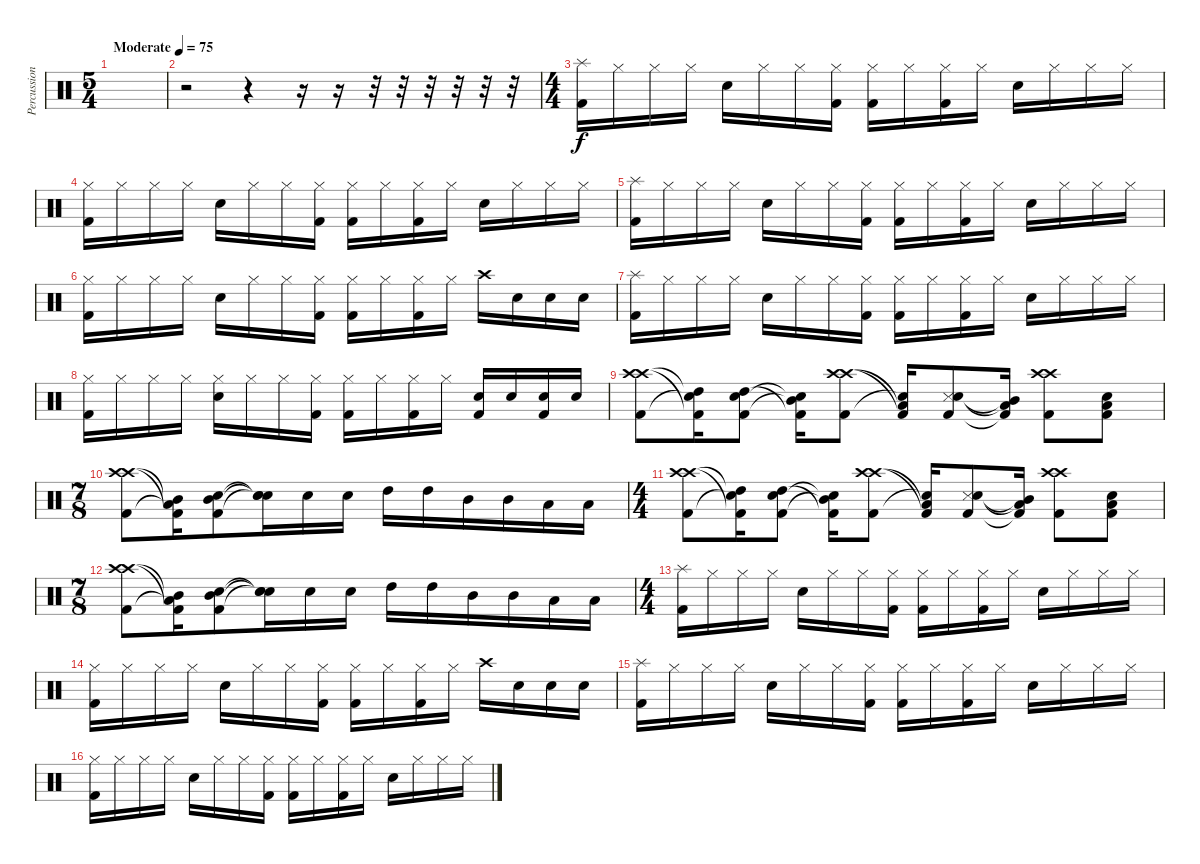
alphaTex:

\track ("Percussion" "Percussion") {instrument percussion}
\staff {score}
\articulation defaults
\ts (5 4)
\tempo (75 "Moderate")
\clef neutral
\ks c
|
r.2 r.4 r.16 r.16 r.32 r.32 r.32 r.32 r.32 r.32 |
\ts (4 4)
("Splash (hit)" "Kick (hit) 2").16 "Hi-Hat (closed)".16 "Hi-Hat (closed)".16 "Hi-Hat (closed)".16 "Snare (hit) 2".16 "Hi-Hat (closed)".16 "Hi-Hat (closed)".16 ("Kick (hit) 2" "Hi-Hat (closed)").16 ("Kick (hit) 2" "Hi-Hat (closed)").16 "Hi-Hat (closed)".16 ("Kick (hit) 2" "Hi-Hat (closed)").16 "Hi-Hat (closed)".16 "Snare (hit) 2".16 "Hi-Hat (closed)".16 "Hi-Hat (closed)".16 "Hi-Hat (closed)".16 |
("Kick (hit) 2" "Hi-Hat (closed)").16 "Hi-Hat (closed)".16 "Hi-Hat (closed)".16 "Hi-Hat (closed)".16 "Snare (hit) 2".16 "Hi-Hat (closed)".16 "Hi-Hat (closed)".16 ("Kick (hit) 2" "Hi-Hat (closed)").16 ("Kick (hit) 2" "Hi-Hat (closed)").16 "Hi-Hat (closed)".16 ("Kick (hit) 2" "Hi-Hat (closed)").16 "Hi-Hat (closed)".16 "Snare (hit) 2".16 "Hi-Hat (closed)".16 "Hi-Hat (closed)".16 "Hi-Hat (closed)".16 |
("Splash (hit)" "Kick (hit) 2").16 "Hi-Hat (closed)".16 "Hi-Hat (closed)".16 "Hi-Hat (closed)".16 "Snare (hit) 2".16 "Hi-Hat (closed)".16 "Hi-Hat (closed)".16 ("Kick (hit) 2" "Hi-Hat (closed)").16 ("Kick (hit) 2" "Hi-Hat (closed)").16 "Hi-Hat (closed)".16 ("Kick (hit) 2" "Hi-Hat (closed)").16 "Hi-Hat (closed)".16 "Snare (hit) 2".16 "Hi-Hat (closed)".16 "Hi-Hat (closed)".16 "Hi-Hat (closed)".16 |
("Kick (hit) 2" "Hi-Hat (closed)").16 "Hi-Hat (closed)".16 "Hi-Hat (closed)".16 "Hi-Hat (closed)".16 "Snare (hit) 2".16 "Hi-Hat (closed)".16 "Hi-Hat (closed)".16 ("Kick (hit) 2" "Hi-Hat (closed)").16 ("Kick (hit) 2" "Hi-Hat (closed)").16 "Hi-Hat (closed)".16 ("Kick (hit) 2" "Hi-Hat (closed)").16 "Hi-Hat (closed)".16 "Crash high (hit)".16 "Snare (hit) 2".16 "Snare (hit) 2".16 "Snare (hit) 2".16 |
("Splash (hit)" "Kick (hit) 2").16 "Hi-Hat (closed)".16 "Hi-Hat (closed)".16 "Hi-Hat (closed)".16 "Snare (hit) 2".16 "Hi-Hat (closed)".16 "Hi-Hat (closed)".16 ("Kick (hit) 2" "Hi-Hat (closed)").16 ("Kick (hit) 2" "Hi-Hat (closed)").16 "Hi-Hat (closed)".16 ("Kick (hit) 2" "Hi-Hat (closed)").16 "Hi-Hat (closed)".16 "Snare (hit) 2".16 "Hi-Hat (closed)".16 "Hi-Hat (closed)".16 "Hi-Hat (closed)".16 |
("Kick (hit) 2" "Hi-Hat (closed)").16 "Hi-Hat (closed)".16 "Hi-Hat (closed)".16 "Hi-Hat (closed)".16 ("Snare (hit) 2" "Hi-Hat (closed)").16 "Hi-Hat (closed)".16 "Hi-Hat (closed)".16 ("Kick (hit) 2" "Hi-Hat (closed)").16 ("Kick (hit) 2" "Hi-Hat (closed)").16 "Hi-Hat (closed)".16 ("Kick (hit) 2" "Hi-Hat (closed)").16 "Hi-Hat (closed)".16 ("Snare (hit) 2" "Kick (hit) 2").16 "Snare (hit) 2".16 ("Snare (hit) 2" "Kick (hit) 2").16 "Snare (hit) 2".16 |
("Crash high (hit)" "Crash high (hit)" "Kick (hit) 2").8 ("Kick (hit) 2"{t} "High Tom (hit)"{t} "Snare (hit) 2"{t}).16 ("High Tom (hit)" "Kick (hit) 2" "Snare (hit) 2").8 ("Kick (hit) 2"{t} "Mid Tom (hit)"{t} "Snare (hit) 2"{t}).16 ("Crash high (hit)" "Crash high (hit)" "Kick (hit) 2").8 ("Kick (hit) 2"{t} "Low Floor Tom (hit)"{t} "Snare (hit) 2"{t}).16 ("Kick (hit) 2" "Snare (side stick) 3" "Snare (hit) 2").8 ("Kick (hit) 2"{t} "Low Floor Tom (hit)"{t} "Mid Tom (hit)"{t}).16 ("Crash high (hit)" "Crash high (hit)" "Kick (hit) 2").8 ("Kick (hit) 2" "Low Floor Tom (hit)" "Snare (hit) 2").8 |
\ts (7 8)
("Crash high (hit)" "Crash high (hit)" "Kick (hit) 2").8 ("Kick (hit) 2"{t} "Mid Tom (hit)"{t} "Low Floor Tom (hit)"{t}).16 ("Kick (hit) 2" "Mid Tom (hit)" "Snare (hit)").8 ("Snare (hit) 2"{t} "Snare (hit)"{t} "Snare (hit)"{t}).16 "Snare (hit) 2".16 "Snare (hit) 2".16 "High Tom (hit)".16 "High Tom (hit)".16 "Mid Tom (hit)".16 "Mid Tom (hit)".16 "Low Floor Tom (hit)".16 "Low Floor Tom (hit)".16 |
\ts (4 4)
("Crash high (hit)" "Crash high (hit)" "Kick (hit) 2").8 ("Kick (hit) 2"{t} "High Tom (hit)"{t} "Snare (hit) 2"{t}).16 ("High Tom (hit)" "Kick (hit) 2" "Snare (hit) 2").8 ("Kick (hit) 2"{t} "Mid Tom (hit)"{t} "Snare (hit) 2"{t}).16 ("Crash high (hit)" "Crash high (hit)" "Kick (hit) 2").8 ("Kick (hit) 2"{t} "Low Floor Tom (hit)"{t} "Snare (hit) 2"{t}).16 ("Kick (hit) 2" "Snare (side stick) 3" "Snare (hit) 2").8 ("Kick (hit) 2"{t} "Low Floor Tom (hit)"{t} "Mid Tom (hit)"{t}).16 ("Crash high (hit)" "Crash high (hit)" "Kick (hit) 2").8 ("Kick (hit) 2" "Low Floor Tom (hit)" "Snare (hit) 2").8 |
\ts (7 8)
("Crash high (hit)" "Crash high (hit)" "Kick (hit) 2").8 ("Kick (hit) 2"{t} "Mid Tom (hit)"{t} "Low Floor Tom (hit)"{t}).16 ("Kick (hit) 2" "Mid Tom (hit)" "Snare (hit)").8 ("Snare (hit) 2"{t} "Snare (hit)"{t} "Snare (hit)"{t}).16 "Snare (hit) 2".16 "Snare (hit) 2".16 "High Tom (hit)".16 "High Tom (hit)".16 "Mid Tom (hit)".16 "Mid Tom (hit)".16 "Low Floor Tom (hit)".16 "Low Floor Tom (hit)".16 |
\ts (4 4)
("Splash (hit)" "Kick (hit) 2").16 "Hi-Hat (closed)".16 "Hi-Hat (closed)".16 "Hi-Hat (closed)".16 "Snare (hit) 2".16 "Hi-Hat (closed)".16 "Hi-Hat (closed)".16 ("Kick (hit) 2" "Hi-Hat (closed)").16 ("Kick (hit) 2" "Hi-Hat (closed)").16 "Hi-Hat (closed)".16 ("Kick (hit) 2" "Hi-Hat (closed)").16 "Hi-Hat (closed)".16 "Snare (hit) 2".16 "Hi-Hat (closed)".16 "Hi-Hat (closed)".16 "Hi-Hat (closed)".16 |
("Kick (hit) 2" "Hi-Hat (closed)").16 "Hi-Hat (closed)".16 "Hi-Hat (closed)".16 "Hi-Hat (closed)".16 "Snare (hit) 2".16 "Hi-Hat (closed)".16 "Hi-Hat (closed)".16 ("Kick (hit) 2" "Hi-Hat (closed)").16 ("Kick (hit) 2" "Hi-Hat (closed)").16 "Hi-Hat (closed)".16 ("Kick (hit) 2" "Hi-Hat (closed)").16 "Hi-Hat (closed)".16 "Crash high (hit)".16 "Snare (hit) 2".16 "Snare (hit) 2".16 "Snare (hit) 2".16 |
("Splash (hit)" "Kick (hit) 2").16 "Hi-Hat (closed)".16 "Hi-Hat (closed)".16 "Hi-Hat (closed)".16 "Snare (hit) 2".16 "Hi-Hat (closed)".16 "Hi-Hat (closed)".16 ("Kick (hit) 2" "Hi-Hat (closed)").16 ("Kick (hit) 2" "Hi-Hat (closed)").16 "Hi-Hat (closed)".16 ("Kick (hit) 2" "Hi-Hat (closed)").16 "Hi-Hat (closed)".16 "Snare (hit) 2".16 "Hi-Hat (closed)".16 "Hi-Hat (closed)".16 "Hi-Hat (closed)".16 |
("Kick (hit) 2" "Hi-Hat (closed)").16 "Hi-Hat (closed)".16 "Hi-Hat (closed)".16 "Hi-Hat (closed)".16 "Snare (hit) 2".16 "Hi-Hat (closed)".16 "Hi-Hat (closed)".16 ("Kick (hit) 2" "Hi-Hat (closed)").16 ("Kick (hit) 2" "Hi-Hat (closed)").16 "Hi-Hat (closed)".16 ("Kick (hit) 2" "Hi-Hat (closed)").16 "Hi-Hat (closed)".16 "Snare (hit) 2".16 "Hi-Hat (closed)".16 "Hi-Hat (closed)".16 "Hi-Hat (closed)".16
